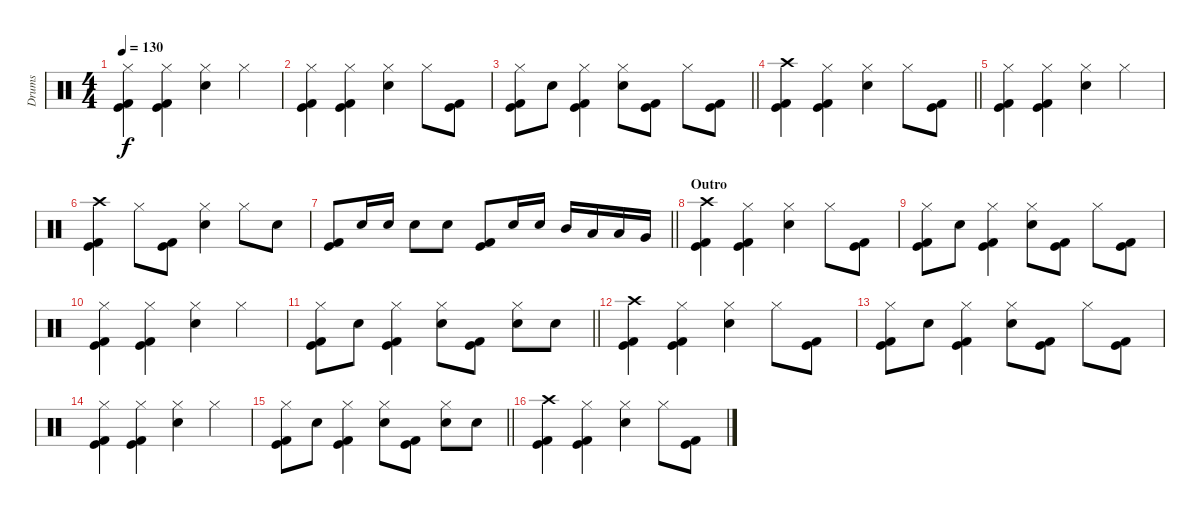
\track ("Drums" "Drums") {instrument percussion}
\staff {score}
\articulation defaults
\ts (4 4)
\tempo 130
\clef neutral
\ks c
("Hi-Hat (closed)" "Kick (hit)" "Kick (hit) 2").4{dy f} ("Hi-Hat (closed)" "Kick (hit)" "Kick (hit) 2").4 ("Hi-Hat (closed)" "Electric Snare (hit)").4 "Hi-Hat (closed)".4 |
("Hi-Hat (closed)" "Kick (hit)" "Kick (hit) 2").4 ("Hi-Hat (closed)" "Kick (hit)" "Kick (hit) 2").4 ("Hi-Hat (closed)" "Electric Snare (hit)").4 "Hi-Hat (closed)".8 ("Kick (hit)" "Kick (hit) 2").8 |
\barLineRight lightlight
("Hi-Hat (closed)" "Kick (hit)" "Kick (hit) 2").8 "Electric Snare (hit)".8 ("Hi-Hat (closed)" "Kick (hit)" "Kick (hit) 2").4 ("Hi-Hat (closed)" "Electric Snare (hit)").8 ("Kick (hit)" "Kick (hit) 2").8 "Hi-Hat (closed)".8 ("Kick (hit)" "Kick (hit) 2").8 |
\barLineRight lightlight
("Crash high (hit)" "Kick (hit)" "Kick (hit) 2").4 ("Hi-Hat (closed)" "Kick (hit)" "Kick (hit) 2").4 ("Hi-Hat (closed)" "Electric Snare (hit)").4 "Hi-Hat (closed)".8 ("Kick (hit)" "Kick (hit) 2").8 |
("Hi-Hat (closed)" "Kick (hit)" "Kick (hit) 2").4 ("Hi-Hat (closed)" "Kick (hit)" "Kick (hit) 2").4 ("Hi-Hat (closed)" "Electric Snare (hit)").4 "Hi-Hat (closed)".4 |
("Crash high (hit)" "Kick (hit)" "Kick (hit) 2").4 "Hi-Hat (closed)".8 ("Kick (hit)" "Kick (hit) 2").8 ("Hi-Hat (closed)" "Electric Snare (hit)").4 "Hi-Hat (closed)".8 "Electric Snare (hit)".8 |
\barLineRight lightlight
("Kick (hit)" "Kick (hit) 2").8 "Electric Snare (hit)".16 "Electric Snare (hit)".16 "Electric Snare (hit)".8 "Electric Snare (hit)".8 ("Kick (hit)" "Kick (hit) 2").8 "Electric Snare (hit)".16 "Electric Snare (hit)".16 "Mid Tom (hit)".16 "Low Tom (hit)".16 "Low Tom (hit)".16 "Very Low Tom (hit)".16 |
\section ("" "Outro")
("Crash high (hit)" "Kick (hit)" "Kick (hit) 2").4 ("Hi-Hat (closed)" "Kick (hit)" "Kick (hit) 2").4 ("Hi-Hat (closed)" "Electric Snare (hit)").4 "Hi-Hat (closed)".8 ("Kick (hit)" "Kick (hit) 2").8 |
("Hi-Hat (closed)" "Kick (hit)" "Kick (hit) 2").8 "Electric Snare (hit)".8 ("Hi-Hat (closed)" "Kick (hit)" "Kick (hit) 2").4 ("Hi-Hat (closed)" "Electric Snare (hit)").8 ("Kick (hit)" "Kick (hit) 2").8 "Hi-Hat (closed)".8 ("Kick (hit)" "Kick (hit) 2").8 |
("Hi-Hat (closed)" "Kick (hit)" "Kick (hit) 2").4 ("Hi-Hat (closed)" "Kick (hit)" "Kick (hit) 2").4 ("Hi-Hat (closed)" "Electric Snare (hit)").4 "Hi-Hat (closed)".4 |
\barLineRight lightlight
("Hi-Hat (closed)" "Kick (hit)" "Kick (hit) 2").8 "Electric Snare (hit)".8 ("Hi-Hat (closed)" "Kick (hit)" "Kick (hit) 2").4 ("Hi-Hat (closed)" "Electric Snare (hit)").8 ("Kick (hit)" "Kick (hit) 2").8 ("Hi-Hat (closed)" "Electric Snare (hit)").8 "Electric Snare (hit)".8 |
("Crash high (hit)" "Kick (hit)" "Kick (hit) 2").4 ("Hi-Hat (closed)" "Kick (hit)" "Kick (hit) 2").4 ("Hi-Hat (closed)" "Electric Snare (hit)").4 "Hi-Hat (closed)".8 ("Kick (hit)" "Kick (hit) 2").8 |
("Hi-Hat (closed)" "Kick (hit)" "Kick (hit) 2").8 "Electric Snare (hit)".8 ("Hi-Hat (closed)" "Kick (hit)" "Kick (hit) 2").4 ("Hi-Hat (closed)" "Electric Snare (hit)").8 ("Kick (hit)" "Kick (hit) 2").8 "Hi-Hat (closed)".8 ("Kick (hit)" "Kick (hit) 2").8 |
("Hi-Hat (closed)" "Kick (hit)" "Kick (hit) 2").4 ("Hi-Hat (closed)" "Kick (hit)" "Kick (hit) 2").4 ("Hi-Hat (closed)" "Electric Snare (hit)").4 "Hi-Hat (closed)".4 |
\barLineRight lightlight
("Hi-Hat (closed)" "Kick (hit)" "Kick (hit) 2").8 "Electric Snare (hit)".8 ("Hi-Hat (closed)" "Kick (hit)" "Kick (hit) 2").4 ("Hi-Hat (closed)" "Electric Snare (hit)").8 ("Kick (hit)" "Kick (hit) 2").8 ("Hi-Hat (closed)" "Electric Snare (hit)").8 "Electric Snare (hit)".8 |
("Crash high (hit)" "Kick (hit)" "Kick (hit) 2").4 ("Hi-Hat (closed)" "Kick (hit)" "Kick (hit) 2").4 ("Hi-Hat (closed)" "Electric Snare (hit)").4 "Hi-Hat (closed)".8 ("Kick (hit)" "Kick (hit) 2").8
